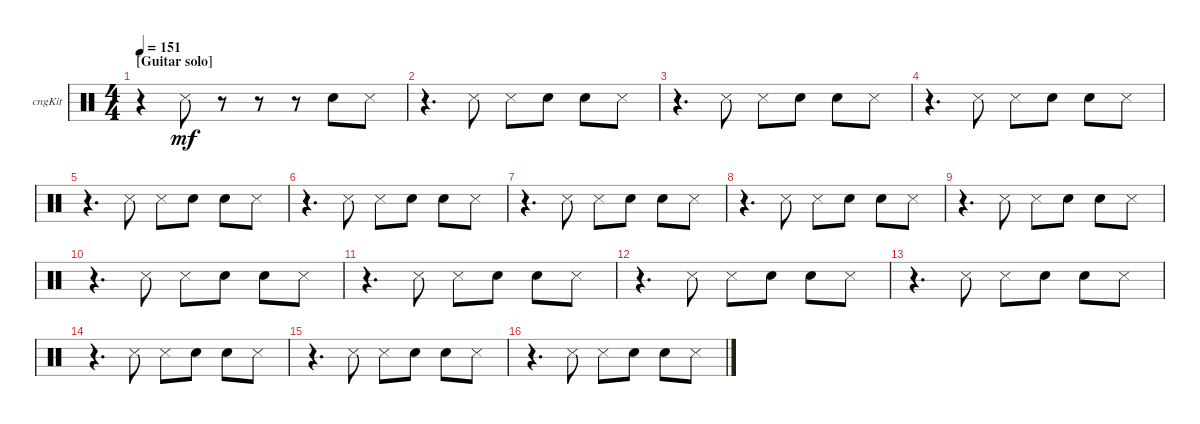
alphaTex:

\bracketExtendMode groupsimilarinstruments
\firstSystemTrackNameOrientation horizontal
\otherSystemsTrackNameOrientation horizontal
\track ("Congas" "cngKit") {instrument percussion}
\staff {score}
\articulation defaults
\ts (4 4)
\section ("" "[Guitar solo]")
\tempo 151
\clef neutral
\ks aminor
r.4{dy mf} "Snare (side stick) 3".8 r.8 r.8 r.8 "Snare (hit) 2".8 "Snare (side stick) 3".8 |
r.4{d} "Snare (side stick) 3".8 "Snare (side stick) 3".8 "Snare (hit) 2".8 "Snare (hit) 2".8 "Snare (side stick) 3".8 |
r.4{d} "Snare (side stick) 3".8 "Snare (side stick) 3".8 "Snare (hit) 2".8 "Snare (hit) 2".8 "Snare (side stick) 3".8 |
r.4{d} "Snare (side stick) 3".8 "Snare (side stick) 3".8 "Snare (hit) 2".8 "Snare (hit) 2".8 "Snare (side stick) 3".8 |
r.4{d} "Snare (side stick) 3".8 "Snare (side stick) 3".8 "Snare (hit) 2".8 "Snare (hit) 2".8 "Snare (side stick) 3".8 |
r.4{d} "Snare (side stick) 3".8 "Snare (side stick) 3".8 "Snare (hit) 2".8 "Snare (hit) 2".8 "Snare (side stick) 3".8 |
r.4{d} "Snare (side stick) 3".8 "Snare (side stick) 3".8 "Snare (hit) 2".8 "Snare (hit) 2".8 "Snare (side stick) 3".8 |
r.4{d} "Snare (side stick) 3".8 "Snare (side stick) 3".8 "Snare (hit) 2".8 "Snare (hit) 2".8 "Snare (side stick) 3".8 |
r.4{d} "Snare (side stick) 3".8 "Snare (side stick) 3".8 "Snare (hit) 2".8 "Snare (hit) 2".8 "Snare (side stick) 3".8 |
r.4{d} "Snare (side stick) 3".8 "Snare (side stick) 3".8 "Snare (hit) 2".8 "Snare (hit) 2".8 "Snare (side stick) 3".8 |
r.4{d} "Snare (side stick) 3".8 "Snare (side stick) 3".8 "Snare (hit) 2".8 "Snare (hit) 2".8 "Snare (side stick) 3".8 |
r.4{d} "Snare (side stick) 3".8 "Snare (side stick) 3".8 "Snare (hit) 2".8 "Snare (hit) 2".8 "Snare (side stick) 3".8 |
r.4{d} "Snare (side stick) 3".8 "Snare (side stick) 3".8 "Snare (hit) 2".8 "Snare (hit) 2".8 "Snare (side stick) 3".8 |
r.4{d} "Snare (side stick) 3".8 "Snare (side stick) 3".8 "Snare (hit) 2".8 "Snare (hit) 2".8 "Snare (side stick) 3".8 |
r.4{d} "Snare (side stick) 3".8 "Snare (side stick) 3".8 "Snare (hit) 2".8 "Snare (hit) 2".8 "Snare (side stick) 3".8 |
r.4{d} "Snare (side stick) 3".8 "Snare (side stick) 3".8 "Snare (hit) 2".8 "Snare (hit) 2".8 "Snare (side stick) 3".8
